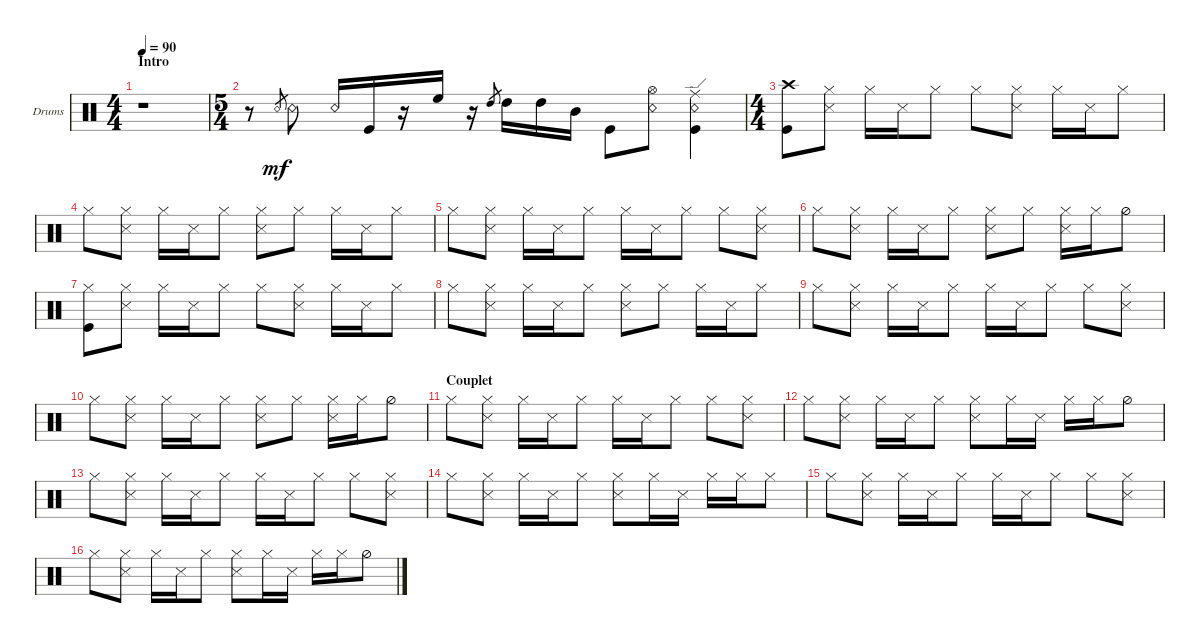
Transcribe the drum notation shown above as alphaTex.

\defaultSystemsLayout 4
\bracketExtendMode groupsimilarinstruments
\firstSystemTrackNameOrientation horizontal
\otherSystemsTrackNameOrientation horizontal
\track ("Drumkit" "Drums") {instrument percussion}
\staff {score}
\articulation defaults
\ts (4 4)
\section ("" "Intro")
\tempo 90
\clef neutral
\ks c
r.1{dy mf} |
\ts (5 4)
r.8 "Snare (rim shot)".8{gr} "Snare (rim shot)".8 "Snare (rim shot)".16 "Kick (hit)".16 r.16 "High Floor Tom (hit)".16 r.16 "High Tom (hit)".8{gr} "High Tom (hit)".16 "High Tom (hit)".16 "Mid Tom (hit)".16 "Kick (hit)".8 ("Snare (rim shot)" "Hi-Hat (open)").8 ("Kick (hit)" "Snare (rim shot)" "Ride (edge)").4 |
\ts (4 4)
("Crash high (hit)" "Kick (hit)").8 ("Hi-Hat (closed)" "Snare (side stick) 3").8 "Hi-Hat (closed)".16 "Snare (side stick) 3".16 "Hi-Hat (closed)".8 "Hi-Hat (closed)".8 ("Hi-Hat (closed)" "Snare (side stick) 3").8 "Hi-Hat (closed)".16 "Snare (side stick) 3".16 "Hi-Hat (closed)".8 |
"Hi-Hat (closed)".8 ("Hi-Hat (closed)" "Snare (side stick) 3").8 "Hi-Hat (closed)".16 "Snare (side stick) 3".16 "Hi-Hat (closed)".8 ("Hi-Hat (closed)" "Snare (side stick) 3").8 "Hi-Hat (closed)".8 "Hi-Hat (closed)".16 "Snare (side stick) 3".16 "Hi-Hat (closed)".8 |
"Hi-Hat (closed)".8 ("Hi-Hat (closed)" "Snare (side stick) 3").8 "Hi-Hat (closed)".16 "Snare (side stick) 3".16 "Hi-Hat (closed)".8 "Hi-Hat (closed)".16 "Snare (side stick) 3".16 "Hi-Hat (closed)".8 "Hi-Hat (closed)".8 ("Hi-Hat (closed)" "Snare (side stick) 3").8 |
"Hi-Hat (closed)".8 ("Hi-Hat (closed)" "Snare (side stick) 3").8 "Hi-Hat (closed)".16 "Snare (side stick) 3".16 "Hi-Hat (closed)".8 ("Hi-Hat (closed)" "Snare (side stick) 3").8 "Hi-Hat (closed)".8 ("Hi-Hat (closed)" "Snare (side stick) 3").16 "Hi-Hat (closed)".16 "Hi-Hat (half)".8 |
("Kick (hit)" "Hi-Hat (closed)").8 ("Hi-Hat (closed)" "Snare (side stick) 3").8 "Hi-Hat (closed)".16 "Snare (side stick) 3".16 "Hi-Hat (closed)".8 "Hi-Hat (closed)".8 ("Hi-Hat (closed)" "Snare (side stick) 3").8 "Hi-Hat (closed)".16 "Snare (side stick) 3".16 "Hi-Hat (closed)".8 |
"Hi-Hat (closed)".8 ("Hi-Hat (closed)" "Snare (side stick) 3").8 "Hi-Hat (closed)".16 "Snare (side stick) 3".16 "Hi-Hat (closed)".8 ("Hi-Hat (closed)" "Snare (side stick) 3").8 "Hi-Hat (closed)".8 "Hi-Hat (closed)".16 "Snare (side stick) 3".16 "Hi-Hat (closed)".8 |
"Hi-Hat (closed)".8 ("Hi-Hat (closed)" "Snare (side stick) 3").8 "Hi-Hat (closed)".16 "Snare (side stick) 3".16 "Hi-Hat (closed)".8 "Hi-Hat (closed)".16 "Snare (side stick) 3".16 "Hi-Hat (closed)".8 "Hi-Hat (closed)".8 ("Hi-Hat (closed)" "Snare (side stick) 3").8 |
"Hi-Hat (closed)".8 ("Hi-Hat (closed)" "Snare (side stick) 3").8 "Hi-Hat (closed)".16 "Snare (side stick) 3".16 "Hi-Hat (closed)".8 ("Hi-Hat (closed)" "Snare (side stick) 3").8 "Hi-Hat (closed)".8 ("Hi-Hat (closed)" "Snare (side stick) 3").16 "Hi-Hat (closed)".16 "Hi-Hat (half)".8 |
\section ("" "Couplet")
"Hi-Hat (closed)".8 ("Hi-Hat (closed)" "Snare (side stick) 3").8 "Hi-Hat (closed)".16 "Snare (side stick) 3".16 "Hi-Hat (closed)".8 "Hi-Hat (closed)".16 "Snare (side stick) 3".16 "Hi-Hat (closed)".8 "Hi-Hat (closed)".8 ("Hi-Hat (closed)" "Snare (side stick) 3").8 |
"Hi-Hat (closed)".8 ("Hi-Hat (closed)" "Snare (side stick) 3").8 "Hi-Hat (closed)".16 "Snare (side stick) 3".16 "Hi-Hat (closed)".8 ("Hi-Hat (closed)" "Snare (side stick) 3").8 "Hi-Hat (closed)".16 "Snare (side stick) 3".16 "Hi-Hat (closed)".16 "Hi-Hat (closed)".16 "Hi-Hat (half)".8 |
"Hi-Hat (closed)".8 ("Hi-Hat (closed)" "Snare (side stick) 3").8 "Hi-Hat (closed)".16 "Snare (side stick) 3".16 "Hi-Hat (closed)".8 "Hi-Hat (closed)".16 "Snare (side stick) 3".16 "Hi-Hat (closed)".8 "Hi-Hat (closed)".8 ("Hi-Hat (closed)" "Snare (side stick) 3").8 |
"Hi-Hat (closed)".8 ("Hi-Hat (closed)" "Snare (side stick) 3").8 "Hi-Hat (closed)".16 "Snare (side stick) 3".16 "Hi-Hat (closed)".8 ("Hi-Hat (closed)" "Snare (side stick) 3").8 "Hi-Hat (closed)".16 "Snare (side stick) 3".16 "Hi-Hat (closed)".16 "Hi-Hat (closed)".16 "Hi-Hat (closed)".8 |
"Hi-Hat (closed)".8 ("Hi-Hat (closed)" "Snare (side stick) 3").8 "Hi-Hat (closed)".16 "Snare (side stick) 3".16 "Hi-Hat (closed)".8 "Hi-Hat (closed)".16 "Snare (side stick) 3".16 "Hi-Hat (closed)".8 "Hi-Hat (closed)".8 ("Hi-Hat (closed)" "Snare (side stick) 3").8 |
"Hi-Hat (closed)".8 ("Hi-Hat (closed)" "Snare (side stick) 3").8 "Hi-Hat (closed)".16 "Snare (side stick) 3".16 "Hi-Hat (closed)".8 ("Hi-Hat (closed)" "Snare (side stick) 3").8 "Hi-Hat (closed)".16 "Snare (side stick) 3".16 "Hi-Hat (closed)".16 "Hi-Hat (closed)".16 "Hi-Hat (half)".8
